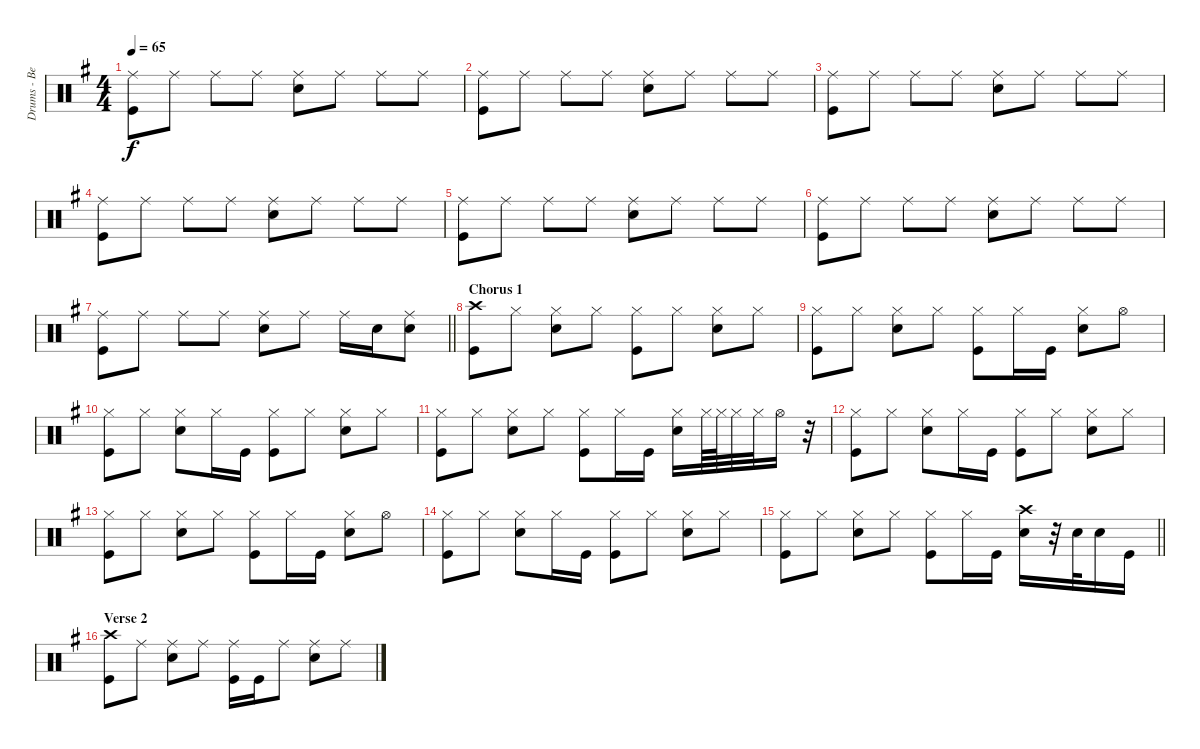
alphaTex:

\track ("Drums - Ben Johnston" "Drums - Be") {instrument percussion}
\staff {score}
\articulation defaults
\ts (4 4)
\tempo 65
\clef neutral
\ks g
("Ride (middle)" "Kick (hit)").8{dy f} "Ride (middle)".8 "Ride (middle)".8 "Ride (middle)".8 ("Ride (middle)" "Snare (hit) 2").8 "Ride (middle)".8 "Ride (middle)".8 "Ride (middle)".8 |
("Ride (middle)" "Kick (hit)").8 "Ride (middle)".8 "Ride (middle)".8 "Ride (middle)".8 ("Ride (middle)" "Snare (hit) 2").8 "Ride (middle)".8 "Ride (middle)".8 "Ride (middle)".8 |
("Ride (middle)" "Kick (hit)").8 "Ride (middle)".8 "Ride (middle)".8 "Ride (middle)".8 ("Ride (middle)" "Snare (hit) 2").8 "Ride (middle)".8 "Ride (middle)".8 "Ride (middle)".8 |
("Ride (middle)" "Kick (hit)").8 "Ride (middle)".8 "Ride (middle)".8 "Ride (middle)".8 ("Ride (middle)" "Snare (hit) 2").8 "Ride (middle)".8 "Ride (middle)".8 "Ride (middle)".8 |
("Ride (middle)" "Kick (hit)").8 "Ride (middle)".8 "Ride (middle)".8 "Ride (middle)".8 ("Ride (middle)" "Snare (hit) 2").8 "Ride (middle)".8 "Ride (middle)".8 "Ride (middle)".8 |
("Ride (middle)" "Kick (hit)").8 "Ride (middle)".8 "Ride (middle)".8 "Ride (middle)".8 ("Ride (middle)" "Snare (hit) 2").8 "Ride (middle)".8 "Ride (middle)".8 "Ride (middle)".8 |
\barLineRight lightlight
("Ride (middle)" "Kick (hit)").8 "Ride (middle)".8 "Ride (middle)".8 "Ride (middle)".8 ("Ride (middle)" "Snare (hit) 2").8 "Ride (middle)".8 "Ride (middle)".16 "Snare (hit) 2".16 ("Ride (middle)" "Snare (hit) 2").8 |
\section ("" "Chorus 1")
("Crash high (hit)" "Kick (hit)").8 "Hi-Hat (closed)".8 ("Hi-Hat (closed)" "Snare (hit) 2").8 "Hi-Hat (closed)".8 ("Hi-Hat (closed)" "Kick (hit)").8 "Hi-Hat (closed)".8 ("Hi-Hat (closed)" "Snare (hit) 2").8 "Hi-Hat (closed)".8 |
("Hi-Hat (closed)" "Kick (hit)").8 "Hi-Hat (closed)".8 ("Hi-Hat (closed)" "Snare (hit) 2").8 "Hi-Hat (closed)".8 ("Hi-Hat (closed)" "Kick (hit)").8 "Hi-Hat (closed)".16 "Kick (hit)".16 ("Hi-Hat (closed)" "Snare (hit) 2").8 "Hi-Hat (open)".8 |
("Hi-Hat (closed)" "Kick (hit)").8 "Hi-Hat (closed)".8 ("Hi-Hat (closed)" "Snare (hit) 2").8 "Hi-Hat (closed)".16 "Kick (hit)".16 ("Hi-Hat (closed)" "Kick (hit)").8 "Hi-Hat (closed)".8 ("Hi-Hat (closed)" "Snare (hit) 2").8 "Hi-Hat (closed)".8 |
("Hi-Hat (closed)" "Kick (hit)").8 "Hi-Hat (closed)".8 ("Hi-Hat (closed)" "Snare (hit) 2").8 "Hi-Hat (closed)".8 ("Hi-Hat (closed)" "Kick (hit)").8 "Hi-Hat (closed)".16 "Kick (hit)".16 ("Hi-Hat (closed)" "Snare (hit) 2").16 "Hi-Hat (closed)".64 "Hi-Hat (closed)".64 "Hi-Hat (closed)".32 "Hi-Hat (closed)".32 "Hi-Hat (open)".16 r.32 |
("Hi-Hat (closed)" "Kick (hit)").8 "Hi-Hat (closed)".8 ("Hi-Hat (closed)" "Snare (hit) 2").8 "Hi-Hat (closed)".16 "Kick (hit)".16 ("Hi-Hat (closed)" "Kick (hit)").8 "Hi-Hat (closed)".8 ("Hi-Hat (closed)" "Snare (hit) 2").8 "Hi-Hat (closed)".8 |
("Hi-Hat (closed)" "Kick (hit)").8 "Hi-Hat (closed)".8 ("Hi-Hat (closed)" "Snare (hit) 2").8 "Hi-Hat (closed)".8 ("Hi-Hat (closed)" "Kick (hit)").8 "Hi-Hat (closed)".16 "Kick (hit)".16 ("Hi-Hat (closed)" "Snare (hit) 2").8 "Hi-Hat (open)".8 |
("Hi-Hat (closed)" "Kick (hit)").8 "Hi-Hat (closed)".8 ("Hi-Hat (closed)" "Snare (hit) 2").8 "Hi-Hat (closed)".16 "Kick (hit)".16 ("Hi-Hat (closed)" "Kick (hit)").8 "Hi-Hat (closed)".8 ("Hi-Hat (closed)" "Snare (hit) 2").8 "Hi-Hat (closed)".8 |
\barLineRight lightlight
("Hi-Hat (closed)" "Kick (hit)").8 "Hi-Hat (closed)".8 ("Hi-Hat (closed)" "Snare (hit) 2").8 "Hi-Hat (closed)".8 ("Hi-Hat (closed)" "Kick (hit)").8 "Hi-Hat (closed)".16 "Kick (hit)".16 ("Crash high (hit)" "Snare (hit) 2").16 r.32 "Snare (hit) 2".32 "Snare (hit) 2".16 "Kick (hit)".16 |
\section ("" "Verse 2")
("Crash high (hit)" "Kick (hit)").8 "Ride (middle)".8 ("Ride (middle)" "Snare (hit) 2").8 "Ride (middle)".8 ("Ride (middle)" "Kick (hit)").16 "Kick (hit)".16 "Ride (middle)".8 ("Ride (middle)" "Snare (hit) 2").8 "Ride (middle)".8
